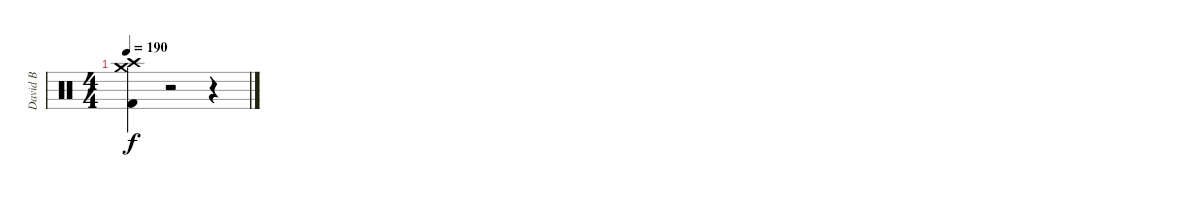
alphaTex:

\track ("David B" "David B") {instrument percussion}
\staff {score}
\articulation defaults
\ts (4 4)
\tempo 190
\clef neutral
\ks c
("Crash high (hit)" "Crash medium (hit)" "Kick (hit) 2").4{dy f} r.2 r.4
